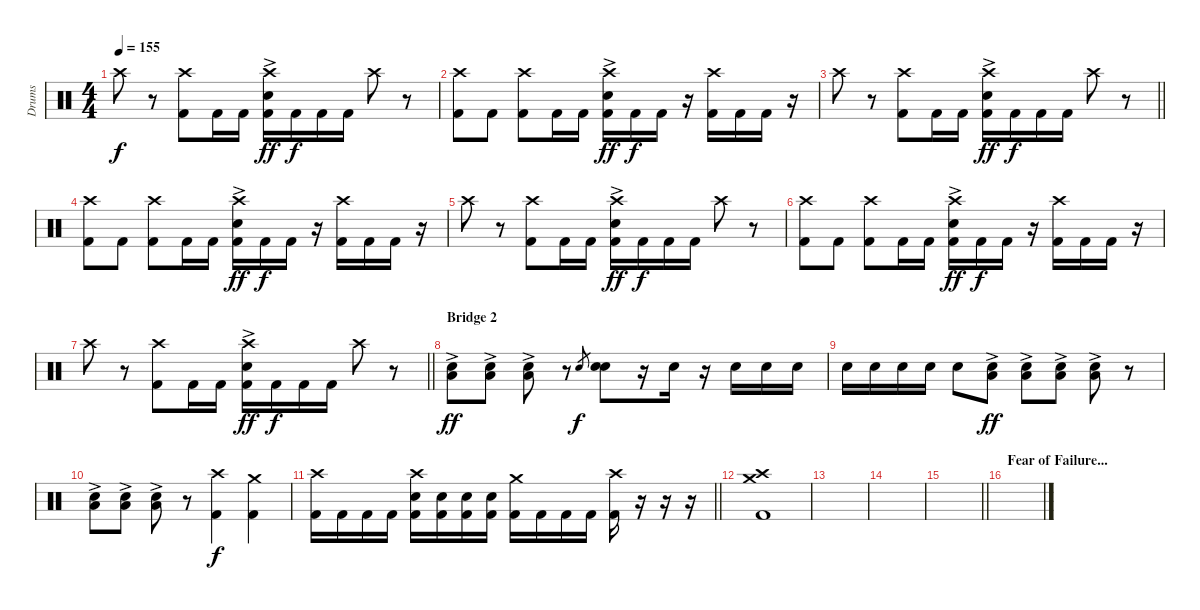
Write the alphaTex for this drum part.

\track ("Drums" "Drums") {instrument percussion}
\staff {score}
\articulation defaults
\ts (4 4)
\tempo 155
\clef neutral
\ks c "Crash high (hit)".8{dy f}
r.8 ("Crash high (hit)" "Kick (hit) 2").8 "Kick (hit) 2".16 "Kick (hit) 2".16 ("Crash high (hit)" "Snare (hit) 2"{ac} "Kick (hit) 2").16{dy ff} "Kick (hit) 2".16{dy f} "Kick (hit) 2".16 "Kick (hit) 2".16 "Crash high (hit)".8 r.8 |
("Crash high (hit)" "Kick (hit) 2").8 "Kick (hit) 2".8 ("Crash high (hit)" "Kick (hit) 2").8 "Kick (hit) 2".16 "Kick (hit) 2".16 ("Crash high (hit)" "Snare (hit) 2"{ac} "Kick (hit) 2").16{dy ff} "Kick (hit) 2".16{dy f} "Kick (hit) 2".16 r.16 ("Crash high (hit)" "Kick (hit) 2").16 "Kick (hit) 2".16 "Kick (hit) 2".16 r.16 |
\barLineRight lightlight "Crash high (hit)".8
r.8 ("Crash high (hit)" "Kick (hit) 2").8 "Kick (hit) 2".16 "Kick (hit) 2".16 ("Crash high (hit)" "Snare (hit) 2"{ac} "Kick (hit) 2").16{dy ff} "Kick (hit) 2".16{dy f} "Kick (hit) 2".16 "Kick (hit) 2".16 "Crash high (hit)".8 r.8 |
("Crash high (hit)" "Kick (hit) 2").8 "Kick (hit) 2".8 ("Crash high (hit)" "Kick (hit) 2").8 "Kick (hit) 2".16 "Kick (hit) 2".16 ("Crash high (hit)" "Snare (hit) 2"{ac} "Kick (hit) 2").16{dy ff} "Kick (hit) 2".16{dy f} "Kick (hit) 2".16 r.16 ("Crash high (hit)" "Kick (hit) 2").16 "Kick (hit) 2".16 "Kick (hit) 2".16 r.16 |
"Crash high (hit)".8 r.8 ("Crash high (hit)" "Kick (hit) 2").8 "Kick (hit) 2".16 "Kick (hit) 2".16 ("Crash high (hit)" "Snare (hit) 2"{ac} "Kick (hit) 2").16{dy ff} "Kick (hit) 2".16{dy f} "Kick (hit) 2".16 "Kick (hit) 2".16 "Crash high (hit)".8 r.8 |
("Crash high (hit)" "Kick (hit) 2").8 "Kick (hit) 2".8 ("Crash high (hit)" "Kick (hit) 2").8 "Kick (hit) 2".16 "Kick (hit) 2".16 ("Crash high (hit)" "Snare (hit) 2"{ac} "Kick (hit) 2").16{dy ff} "Kick (hit) 2".16{dy f} "Kick (hit) 2".16 r.16 ("Crash high (hit)" "Kick (hit) 2").16 "Kick (hit) 2".16 "Kick (hit) 2".16 r.16 |
\barLineRight lightlight "Crash high (hit)".8
r.8 ("Crash high (hit)" "Kick (hit) 2").8 "Kick (hit) 2".16 "Kick (hit) 2".16 ("Crash high (hit)" "Snare (hit) 2"{ac} "Kick (hit) 2").16{dy ff} "Kick (hit) 2".16{dy f} "Kick (hit) 2".16 "Kick (hit) 2".16 "Crash high (hit)".8 r.8 |
\section ("" "Bridge 2")
("Low Tom (hit)"{ac} "Snare (hit) 2").8{dy ff} ("Low Tom (hit)"{ac} "Snare (hit) 2").8 ("Low Tom (hit)"{ac} "Snare (hit) 2").8 r.8 "Snare (hit) 2".8{gr dy f} ("Snare (hit) 2" "Snare (hit) 2").8 r.16 "Snare (hit) 2".16 r.16 "Snare (hit) 2".16 "Snare (hit) 2".16 "Snare (hit) 2".16 |
"Snare (hit) 2".16 "Snare (hit) 2".16 "Snare (hit) 2".16 "Snare (hit) 2".16 "Snare (hit) 2".8 ("Low Tom (hit)"{ac} "Snare (hit) 2").8{dy ff} ("Low Tom (hit)"{ac} "Snare (hit) 2").8 ("Low Tom (hit)"{ac} "Snare (hit) 2").8 ("Low Tom (hit)"{ac} "Snare (hit) 2").8 r.8 |
("Low Tom (hit)"{ac} "Snare (hit) 2").8 ("Low Tom (hit)"{ac} "Snare (hit) 2").8 ("Low Tom (hit)"{ac} "Snare (hit) 2").8 r.8 ("Crash high (hit)" "Kick (hit) 2").4{dy f} ("Crash medium (hit)" "Kick (hit) 2").4 |
\barLineRight lightlight
("Crash high (hit)" "Kick (hit) 2").16 "Kick (hit) 2".16 "Kick (hit) 2".16 "Kick (hit) 2".16 ("Crash high (hit)" "Snare (hit) 2" "Kick (hit) 2").16 ("Snare (hit) 2" "Kick (hit) 2").16 ("Snare (hit) 2" "Kick (hit) 2").16 ("Snare (hit) 2" "Kick (hit) 2").16 ("Crash medium (hit)" "Kick (hit) 2").16 "Kick (hit) 2".16 "Kick (hit) 2".16 "Kick (hit) 2".16 ("Crash high (hit)" "Kick (hit) 2").16 r.16 r.16 r.16 |
\section ("" "")
("Crash high (hit)" "Crash medium (hit)" "Kick (hit) 2").1 |
|
|
\barLineRight lightlight
|
\section ("" "Fear of Failure...")
